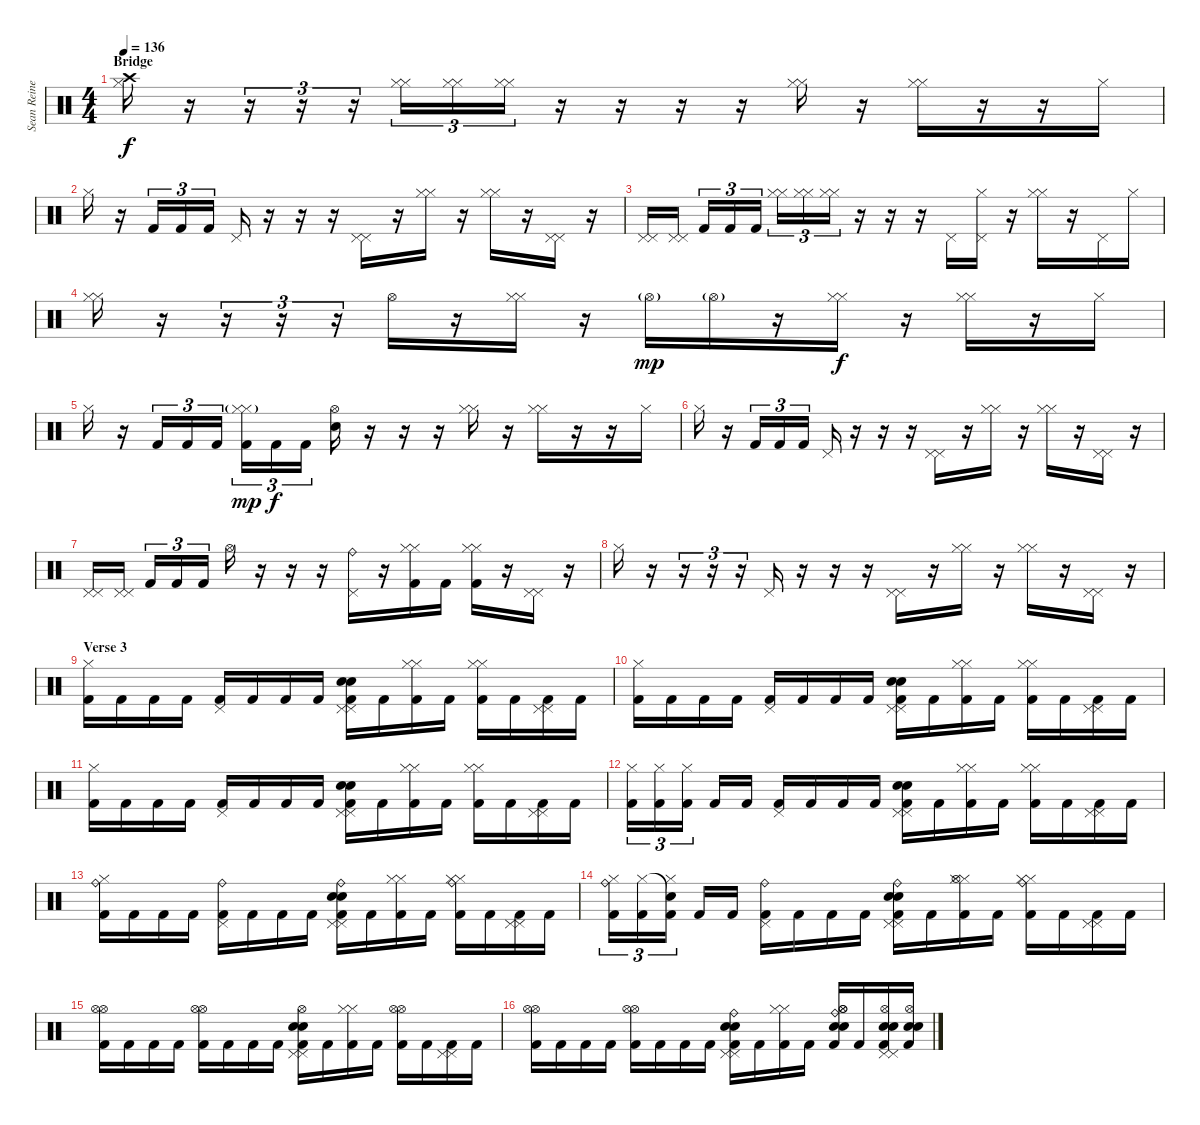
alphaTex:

\track ("Sean Reinert" "Sean Reine") {instrument percussion}
\staff {score}
\articulation defaults
\ts (4 4)
\section ("" "Bridge")
\tempo 136
\clef neutral
\ks c
("Crash high (hit)" "Hi-Hat (closed)").16{dy f} r.16 r.16{tu (3 2)} r.16{tu (3 2)} r.16{tu (3 2)} ("Hi-Hat (closed)" "Hi-Hat (closed)").16{tu (3 2)} ("Hi-Hat (closed)" "Hi-Hat (closed)").16{tu (3 2)} ("Hi-Hat (closed)" "Hi-Hat (closed)").16{tu (3 2)} r.16 r.16 r.16 r.16 ("Hi-Hat (closed)" "Hi-Hat (closed)").16 r.16 ("Hi-Hat (closed)" "Hi-Hat (closed)").16 r.16 r.16 "Hi-Hat (closed)".16 |
"Hi-Hat (closed)".16 r.16 "Kick (hit) 2".16{tu (3 2)} "Kick (hit) 2".16{tu (3 2)} "Kick (hit) 2".16{tu (3 2)} "Pedal Hi-Hat (hit)".16 r.16 r.16 r.16 ("Pedal Hi-Hat (hit)" "Pedal Hi-Hat (hit)").16 r.16 ("Hi-Hat (closed)" "Hi-Hat (closed)").16 r.16 ("Hi-Hat (closed)" "Hi-Hat (closed)").16 r.16 ("Pedal Hi-Hat (hit)" "Pedal Hi-Hat (hit)").16 r.16 |
("Pedal Hi-Hat (hit)" "Pedal Hi-Hat (hit)").16 ("Pedal Hi-Hat (hit)" "Pedal Hi-Hat (hit)").16 "Kick (hit) 2".16{tu (3 2)} "Kick (hit) 2".16{tu (3 2)} "Kick (hit) 2".16{tu (3 2)} ("Hi-Hat (closed)" "Hi-Hat (closed)").16{tu (3 2)} ("Hi-Hat (closed)" "Hi-Hat (closed)").16{tu (3 2)} ("Hi-Hat (closed)" "Hi-Hat (closed)").16{tu (3 2)} r.16 r.16 r.16 "Pedal Hi-Hat (hit)".16 ("Hi-Hat (closed)" "Pedal Hi-Hat (hit)").16 r.16 ("Hi-Hat (closed)" "Hi-Hat (closed)").16 r.16 "Pedal Hi-Hat (hit)".16 "Hi-Hat (closed)".16 |
("Hi-Hat (closed)" "Hi-Hat (closed)").16 r.16 r.16{tu (3 2)} r.16{tu (3 2)} r.16{tu (3 2)} "Hi-Hat (open)".16 r.16 ("Hi-Hat (closed)" "Hi-Hat (closed)").16 r.16 "Hi-Hat (open)"{g}.16{dy mp} "Hi-Hat (open)"{g}.16 r.16 ("Hi-Hat (closed)" "Hi-Hat (closed)").16{dy f} r.16 ("Hi-Hat (closed)" "Hi-Hat (closed)").16 r.16 "Hi-Hat (closed)".16 |
"Hi-Hat (closed)".16 r.16 "Kick (hit) 2".16{tu (3 2)} "Kick (hit) 2".16{tu (3 2)} "Kick (hit) 2".16{tu (3 2)} ("Hi-Hat (closed)"{g} "Hi-Hat (closed)" "Kick (hit) 2").16{tu (3 2) dy mp} "Kick (hit) 2".16{tu (3 2) dy f} "Kick (hit) 2".16{tu (3 2)} ("Hi-Hat (open)" "Snare (hit) 2").16 r.16 r.16 r.16 ("Hi-Hat (closed)" "Hi-Hat (closed)").16 r.16 ("Hi-Hat (closed)" "Hi-Hat (closed)").16 r.16 r.16 "Hi-Hat (closed)".16 |
"Hi-Hat (closed)".16 r.16 "Kick (hit) 2".16{tu (3 2)} "Kick (hit) 2".16{tu (3 2)} "Kick (hit) 2".16{tu (3 2)} "Pedal Hi-Hat (hit)".16 r.16 r.16 r.16 ("Pedal Hi-Hat (hit)" "Pedal Hi-Hat (hit)").16 r.16 ("Hi-Hat (closed)" "Hi-Hat (closed)").16 r.16 ("Hi-Hat (closed)" "Hi-Hat (closed)").16 r.16 ("Pedal Hi-Hat (hit)" "Pedal Hi-Hat (hit)").16 r.16 |
("Pedal Hi-Hat (hit)" "Pedal Hi-Hat (hit)").16 ("Pedal Hi-Hat (hit)" "Pedal Hi-Hat (hit)").16 "Kick (hit) 2".16{tu (3 2)} "Kick (hit) 2".16{tu (3 2)} "Kick (hit) 2".16{tu (3 2)} "Hi-Hat (open)".16 r.16 r.16 r.16 ("Ride (bell)" "Pedal Hi-Hat (hit)").16 r.16 ("Hi-Hat (closed)" "Hi-Hat (closed)" "Kick (hit) 2").16 "Kick (hit) 2".16 ("Hi-Hat (closed)" "Hi-Hat (closed)" "Kick (hit) 2").16 r.16 ("Pedal Hi-Hat (hit)" "Pedal Hi-Hat (hit)").16 r.16 |
"Hi-Hat (closed)".16 r.16 r.16{tu (3 2)} r.16{tu (3 2)} r.16{tu (3 2)} "Pedal Hi-Hat (hit)".16 r.16 r.16 r.16 ("Pedal Hi-Hat (hit)" "Pedal Hi-Hat (hit)").16 r.16 ("Hi-Hat (closed)" "Hi-Hat (closed)").16 r.16 ("Hi-Hat (closed)" "Hi-Hat (closed)").16 r.16 ("Pedal Hi-Hat (hit)" "Pedal Hi-Hat (hit)").16 r.16 |
\section ("" "Verse 3")
("Hi-Hat (closed)" "Kick (hit) 2").16 "Kick (hit) 2".16 "Kick (hit) 2".16 "Kick (hit) 2".16 ("Pedal Hi-Hat (hit)" "Kick (hit) 2").16 "Kick (hit) 2".16 "Kick (hit) 2".16 "Kick (hit) 2".16 ("Electric Snare (hit)" "Snare (hit) 2" "Pedal Hi-Hat (hit)" "Pedal Hi-Hat (hit)" "Kick (hit) 2").16 "Kick (hit) 2".16 ("Hi-Hat (closed)" "Hi-Hat (closed)" "Kick (hit) 2").16 "Kick (hit) 2".16 ("Hi-Hat (closed)" "Hi-Hat (closed)" "Kick (hit) 2").16 "Kick (hit) 2".16 ("Pedal Hi-Hat (hit)" "Pedal Hi-Hat (hit)" "Kick (hit) 2").16 "Kick (hit) 2".16 |
("Hi-Hat (closed)" "Kick (hit) 2").16 "Kick (hit) 2".16 "Kick (hit) 2".16 "Kick (hit) 2".16 ("Pedal Hi-Hat (hit)" "Kick (hit) 2").16 "Kick (hit) 2".16 "Kick (hit) 2".16 "Kick (hit) 2".16 ("Electric Snare (hit)" "Snare (hit) 2" "Pedal Hi-Hat (hit)" "Pedal Hi-Hat (hit)" "Kick (hit) 2").16 "Kick (hit) 2".16 ("Hi-Hat (closed)" "Hi-Hat (closed)" "Kick (hit) 2").16 "Kick (hit) 2".16 ("Hi-Hat (closed)" "Hi-Hat (closed)" "Kick (hit) 2").16 "Kick (hit) 2".16 ("Pedal Hi-Hat (hit)" "Pedal Hi-Hat (hit)" "Kick (hit) 2").16 "Kick (hit) 2".16 |
("Hi-Hat (closed)" "Kick (hit) 2").16 "Kick (hit) 2".16 "Kick (hit) 2".16 "Kick (hit) 2".16 ("Pedal Hi-Hat (hit)" "Kick (hit) 2").16 "Kick (hit) 2".16 "Kick (hit) 2".16 "Kick (hit) 2".16 ("Electric Snare (hit)" "Snare (hit) 2" "Pedal Hi-Hat (hit)" "Pedal Hi-Hat (hit)" "Kick (hit) 2").16 "Kick (hit) 2".16 ("Hi-Hat (closed)" "Hi-Hat (closed)" "Kick (hit) 2").16 "Kick (hit) 2".16 ("Hi-Hat (closed)" "Hi-Hat (closed)" "Kick (hit) 2").16 "Kick (hit) 2".16 ("Pedal Hi-Hat (hit)" "Pedal Hi-Hat (hit)" "Kick (hit) 2").16 "Kick (hit) 2".16 |
("Hi-Hat (closed)" "Kick (hit) 2").16{tu (3 2)} ("Hi-Hat (closed)" "Kick (hit) 2").16{tu (3 2)} ("Hi-Hat (closed)" "Kick (hit) 2").16{tu (3 2)} "Kick (hit) 2".16 "Kick (hit) 2".16 ("Pedal Hi-Hat (hit)" "Kick (hit) 2").16 "Kick (hit) 2".16 "Kick (hit) 2".16 "Kick (hit) 2".16 ("Electric Snare (hit)" "Snare (hit) 2" "Pedal Hi-Hat (hit)" "Pedal Hi-Hat (hit)" "Kick (hit) 2").16 "Kick (hit) 2".16 ("Hi-Hat (closed)" "Hi-Hat (closed)" "Kick (hit) 2").16 "Kick (hit) 2".16 ("Hi-Hat (closed)" "Hi-Hat (closed)" "Kick (hit) 2").16 "Kick (hit) 2".16 ("Pedal Hi-Hat (hit)" "Pedal Hi-Hat (hit)" "Kick (hit) 2").16 "Kick (hit) 2".16 |
("Ride (bell)" "Hi-Hat (closed)" "Kick (hit) 2").16 "Kick (hit) 2".16 "Kick (hit) 2".16 "Kick (hit) 2".16 ("Ride (bell)" "Pedal Hi-Hat (hit)" "Kick (hit) 2").16 "Kick (hit) 2".16 "Kick (hit) 2".16 "Kick (hit) 2".16 ("Ride (bell)" "Electric Snare (hit)" "Snare (hit) 2" "Pedal Hi-Hat (hit)" "Pedal Hi-Hat (hit)" "Kick (hit) 2").16 "Kick (hit) 2".16 ("Hi-Hat (closed)" "Hi-Hat (closed)" "Kick (hit) 2").16 "Kick (hit) 2".16 ("Hi-Hat (closed)" "Hi-Hat (closed)" "Ride (bell)" "Kick (hit) 2").16 "Kick (hit) 2".16 ("Pedal Hi-Hat (hit)" "Pedal Hi-Hat (hit)" "Kick (hit) 2").16 "Kick (hit) 2".16 |
("Ride (bell)" "Hi-Hat (closed)" "Kick (hit) 2").16{tu (3 2)} ("Hi-Hat (closed)" "Kick (hit) 2").16{tu (3 2)} ("Snare (hit)"{t} "Hi-Hat (closed)" "Kick (hit) 2").16{tu (3 2)} "Kick (hit) 2".16 "Kick (hit) 2".16 ("Pedal Hi-Hat (hit)" "Ride (bell)" "Kick (hit) 2").16 "Kick (hit) 2".16 "Kick (hit) 2".16 "Kick (hit) 2".16 ("Ride (bell)" "Electric Snare (hit)" "Snare (hit) 2" "Pedal Hi-Hat (hit)" "Pedal Hi-Hat (hit)" "Kick (hit) 2").16 "Kick (hit) 2".16 ("Hi-Hat (closed)" "Hi-Hat (closed)" "Hi-Hat (open)" "Kick (hit) 2").16 "Kick (hit) 2".16 ("Hi-Hat (closed)" "Hi-Hat (closed)" "Ride (bell)" "Kick (hit) 2").16 "Kick (hit) 2".16 ("Pedal Hi-Hat (hit)" "Pedal Hi-Hat (hit)" "Kick (hit) 2").16 "Kick (hit) 2".16 |
("Hi-Hat (open)" "Hi-Hat (open)" "Kick (hit) 2").16 "Kick (hit) 2".16 "Kick (hit) 2".16 "Kick (hit) 2".16 ("Hi-Hat (open)" "Hi-Hat (open)" "Kick (hit) 2").16 "Kick (hit) 2".16 "Kick (hit) 2".16 "Kick (hit) 2".16 ("Hi-Hat (open)" "Electric Snare (hit)" "Snare (hit) 2" "Pedal Hi-Hat (hit)" "Pedal Hi-Hat (hit)" "Kick (hit) 2").16 "Kick (hit) 2".16 ("Hi-Hat (closed)" "Hi-Hat (closed)" "Kick (hit) 2").16 "Kick (hit) 2".16 ("Hi-Hat (open)" "Hi-Hat (open)" "Kick (hit) 2").16 "Kick (hit) 2".16 ("Pedal Hi-Hat (hit)" "Pedal Hi-Hat (hit)" "Kick (hit) 2").16 "Kick (hit) 2".16 |
("Hi-Hat (open)" "Hi-Hat (open)" "Kick (hit) 2").16 "Kick (hit) 2".16 "Kick (hit) 2".16 "Kick (hit) 2".16 ("Hi-Hat (open)" "Hi-Hat (open)" "Kick (hit) 2").16 "Kick (hit) 2".16 "Kick (hit) 2".16 "Kick (hit) 2".16 ("Ride (bell)" "Electric Snare (hit)" "Snare (hit) 2" "Pedal Hi-Hat (hit)" "Pedal Hi-Hat (hit)" "Kick (hit) 2").16 "Kick (hit) 2".16 ("Hi-Hat (closed)" "Hi-Hat (closed)" "Kick (hit) 2").16 "Kick (hit) 2".16 ("Hi-Hat (open)" "Hi-Hat (open)" "Ride (bell)" "Electric Snare (hit)" "Snare (hit) 2" "Kick (hit) 2").16 "Kick (hit) 2".16 ("Hi-Hat (open)" "Electric Snare (hit)" "Snare (hit) 2" "Pedal Hi-Hat (hit)" "Pedal Hi-Hat (hit)" "Kick (hit) 2").16 ("Hi-Hat (open)" "Electric Snare (hit)" "Snare (hit) 2" "Kick (hit) 2").16
